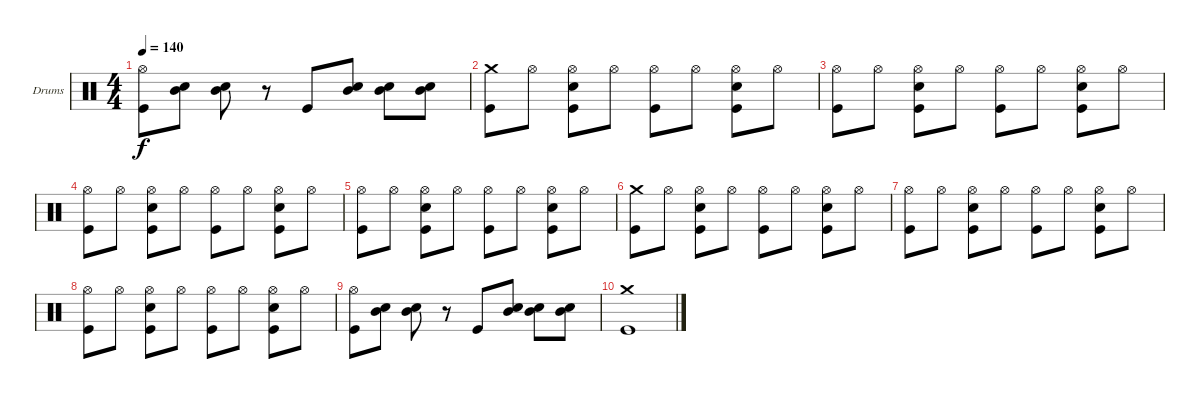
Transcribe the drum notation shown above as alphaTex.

\bracketExtendMode groupsimilarinstruments
\firstSystemTrackNameOrientation horizontal
\otherSystemsTrackNameOrientation horizontal
\track ("Drumkit" "Drums") {instrument percussion}
\staff {score}
\articulation defaults
\ts (4 4)
\tempo 140
\clef neutral
\ks c
("Hi-Hat (open)" "Kick (hit)").8{dy f} ("Mid Tom (hit)" "Snare (hit) 2").8 ("Mid Tom (hit)" "Snare (hit) 2").8 r.8 "Kick (hit)".8 ("Mid Tom (hit)" "Snare (hit) 2").8 ("Mid Tom (hit)" "Snare (hit) 2").8 ("Mid Tom (hit)" "Snare (hit) 2").8 |
("Crash medium (hit)" "Kick (hit)").8 "Hi-Hat (open)".8 ("Hi-Hat (open)" "Snare (hit) 2" "Kick (hit)").8 "Hi-Hat (open)".8 ("Hi-Hat (open)" "Kick (hit)").8 "Hi-Hat (open)".8 ("Hi-Hat (open)" "Snare (hit) 2" "Kick (hit)").8 "Hi-Hat (open)".8 |
("Hi-Hat (open)" "Kick (hit)").8 "Hi-Hat (open)".8 ("Hi-Hat (open)" "Snare (hit) 2" "Kick (hit)").8 "Hi-Hat (open)".8 ("Hi-Hat (open)" "Kick (hit)").8 "Hi-Hat (open)".8 ("Hi-Hat (open)" "Snare (hit) 2" "Kick (hit)").8 "Hi-Hat (open)".8 |
("Hi-Hat (open)" "Kick (hit)").8 "Hi-Hat (open)".8 ("Hi-Hat (open)" "Snare (hit) 2" "Kick (hit)").8 "Hi-Hat (open)".8 ("Hi-Hat (open)" "Kick (hit)").8 "Hi-Hat (open)".8 ("Hi-Hat (open)" "Snare (hit) 2" "Kick (hit)").8 "Hi-Hat (open)".8 |
("Hi-Hat (open)" "Kick (hit)").8 "Hi-Hat (open)".8 ("Hi-Hat (open)" "Snare (hit) 2" "Kick (hit)").8 "Hi-Hat (open)".8 ("Hi-Hat (open)" "Kick (hit)").8 "Hi-Hat (open)".8 ("Hi-Hat (open)" "Snare (hit) 2" "Kick (hit)").8 "Hi-Hat (open)".8 |
("Crash medium (hit)" "Kick (hit)").8 "Hi-Hat (open)".8 ("Hi-Hat (open)" "Snare (hit) 2" "Kick (hit)").8 "Hi-Hat (open)".8 ("Hi-Hat (open)" "Kick (hit)").8 "Hi-Hat (open)".8 ("Hi-Hat (open)" "Snare (hit) 2" "Kick (hit)").8 "Hi-Hat (open)".8 |
("Hi-Hat (open)" "Kick (hit)").8 "Hi-Hat (open)".8 ("Hi-Hat (open)" "Snare (hit) 2" "Kick (hit)").8 "Hi-Hat (open)".8 ("Hi-Hat (open)" "Kick (hit)").8 "Hi-Hat (open)".8 ("Hi-Hat (open)" "Snare (hit) 2" "Kick (hit)").8 "Hi-Hat (open)".8 |
("Hi-Hat (open)" "Kick (hit)").8 "Hi-Hat (open)".8 ("Hi-Hat (open)" "Snare (hit) 2" "Kick (hit)").8 "Hi-Hat (open)".8 ("Hi-Hat (open)" "Kick (hit)").8 "Hi-Hat (open)".8 ("Hi-Hat (open)" "Snare (hit) 2" "Kick (hit)").8 "Hi-Hat (open)".8 |
("Hi-Hat (open)" "Kick (hit)").8 ("Mid Tom (hit)" "Snare (hit) 2").8 ("Mid Tom (hit)" "Snare (hit) 2").8 r.8 "Kick (hit)".8 ("Mid Tom (hit)" "Snare (hit) 2").8 ("Mid Tom (hit)" "Snare (hit) 2").8 ("Mid Tom (hit)" "Snare (hit) 2").8 |
("Crash medium (hit)" "Kick (hit)").1
